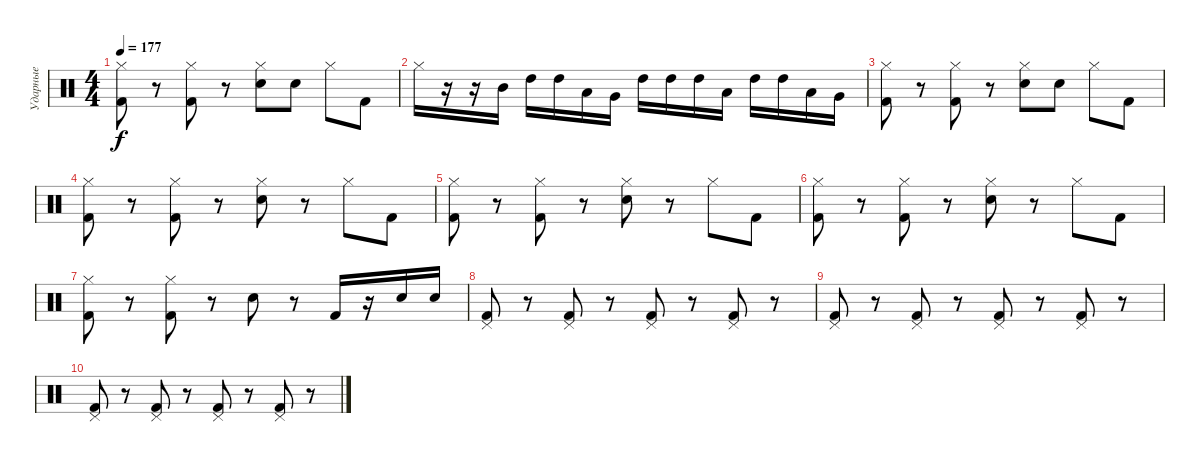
\track ("Ударные" "Ударные") {instrument percussion}
\staff {score}
\articulation defaults
\ts (4 4)
\tempo 177
\clef neutral
\ks c
("Kick (hit) 2" "Hi-Hat (closed)").8{dy f} r.8 ("Kick (hit) 2" "Hi-Hat (closed)").8 r.8 ("Electric Snare (hit)" "Hi-Hat (closed)").8 "Electric Snare (hit)".8 "Hi-Hat (closed)".8 "Kick (hit) 2".8 |
"Hi-Hat (closed)".16 r.16 r.16 "Mid Tom (hit)".16 "High Tom (hit)".16 "High Tom (hit)".16 "Low Tom (hit)".16 "Very Low Tom (hit)".16 "High Tom (hit)".16 "High Tom (hit)".16 "High Tom (hit)".16 "Low Tom (hit)".16 "High Tom (hit)".16 "High Tom (hit)".16 "Low Tom (hit)".16 "Very Low Tom (hit)".16 |
("Kick (hit) 2" "Hi-Hat (closed)").8 r.8 ("Kick (hit) 2" "Hi-Hat (closed)").8 r.8 ("Electric Snare (hit)" "Hi-Hat (closed)").8 "Electric Snare (hit)".8 "Hi-Hat (closed)".8 "Kick (hit) 2".8 |
("Kick (hit) 2" "Hi-Hat (closed)").8 r.8 ("Kick (hit) 2" "Hi-Hat (closed)").8 r.8 ("Electric Snare (hit)" "Hi-Hat (closed)").8 r.8 "Hi-Hat (closed)".8 "Kick (hit) 2".8 |
("Kick (hit) 2" "Hi-Hat (closed)").8 r.8 ("Kick (hit) 2" "Hi-Hat (closed)").8 r.8 ("Electric Snare (hit)" "Hi-Hat (closed)").8 r.8 "Hi-Hat (closed)".8 "Kick (hit) 2".8 |
("Kick (hit) 2" "Hi-Hat (closed)").8 r.8 ("Kick (hit) 2" "Hi-Hat (closed)").8 r.8 ("Electric Snare (hit)" "Hi-Hat (closed)").8 r.8 "Hi-Hat (closed)".8 "Kick (hit) 2".8 |
("Kick (hit) 2" "Hi-Hat (closed)").8 r.8 ("Kick (hit) 2" "Hi-Hat (closed)").8 r.8 "Electric Snare (hit)".8 r.8 "Kick (hit) 2".16 r.16 "Electric Snare (hit)".16 "Electric Snare (hit)".16 |
("Kick (hit) 2" "Pedal Hi-Hat (hit)").8 r.8 ("Kick (hit) 2" "Pedal Hi-Hat (hit)").8 r.8 ("Kick (hit) 2" "Pedal Hi-Hat (hit)").8 r.8 ("Kick (hit) 2" "Pedal Hi-Hat (hit)").8 r.8 |
("Kick (hit) 2" "Pedal Hi-Hat (hit)").8 r.8 ("Kick (hit) 2" "Pedal Hi-Hat (hit)").8 r.8 ("Kick (hit) 2" "Pedal Hi-Hat (hit)").8 r.8 ("Kick (hit) 2" "Pedal Hi-Hat (hit)").8 r.8 |
("Kick (hit) 2" "Pedal Hi-Hat (hit)").8 r.8 ("Kick (hit) 2" "Pedal Hi-Hat (hit)").8 r.8 ("Kick (hit) 2" "Pedal Hi-Hat (hit)").8 r.8 ("Kick (hit) 2" "Pedal Hi-Hat (hit)").8 r.8
